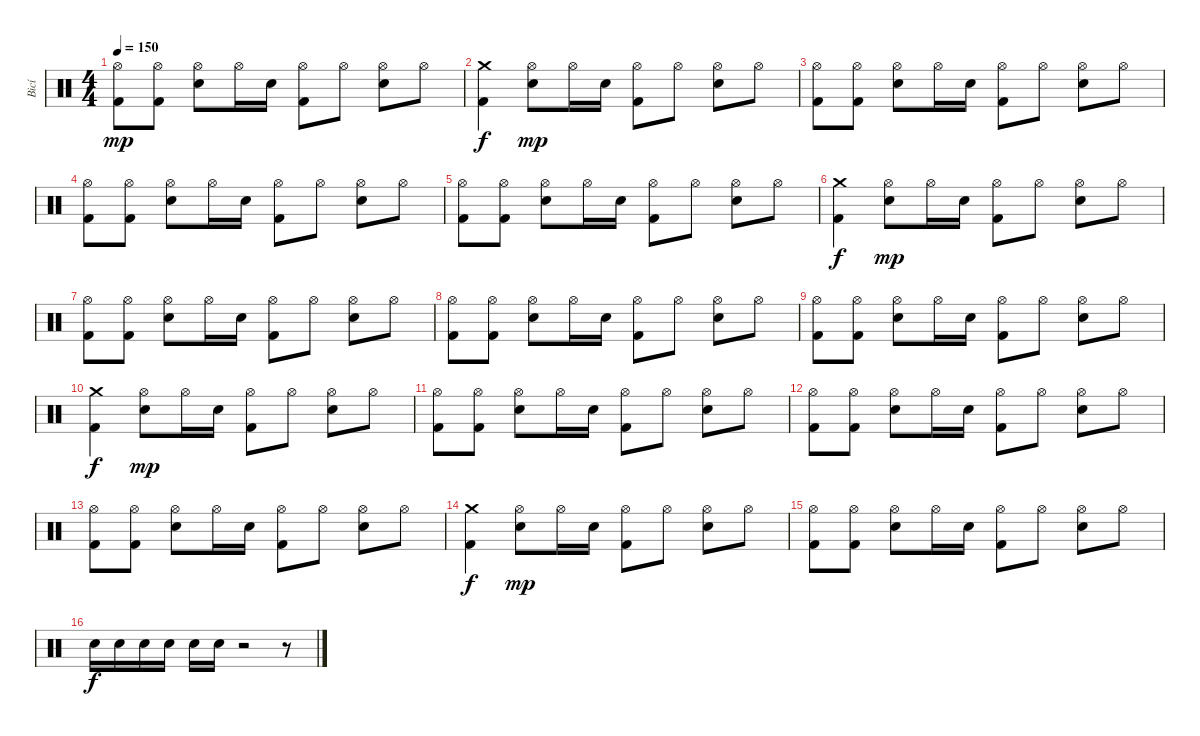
\track ("Bicí" "Bicí") {instrument percussion}
\staff {score}
\articulation defaults
\ts (4 4)
\tempo 150
\clef neutral
\ks c
("Hi-Hat (open)" "Kick (hit) 2").8{dy mp} ("Hi-Hat (open)" "Kick (hit) 2").8 ("Hi-Hat (open)" "Electric Snare (hit)").8 "Hi-Hat (open)".16 "Electric Snare (hit)".16 ("Hi-Hat (open)" "Kick (hit) 2").8 "Hi-Hat (open)".8 ("Hi-Hat (open)" "Electric Snare (hit)").8 "Hi-Hat (open)".8 |
("Crash medium (hit)" "Kick (hit) 2").4{dy f} ("Hi-Hat (open)" "Electric Snare (hit)").8{dy mp} "Hi-Hat (open)".16 "Electric Snare (hit)".16 ("Hi-Hat (open)" "Kick (hit) 2").8 "Hi-Hat (open)".8 ("Hi-Hat (open)" "Electric Snare (hit)").8 "Hi-Hat (open)".8 |
("Hi-Hat (open)" "Kick (hit) 2").8 ("Hi-Hat (open)" "Kick (hit) 2").8 ("Hi-Hat (open)" "Electric Snare (hit)").8 "Hi-Hat (open)".16 "Electric Snare (hit)".16 ("Hi-Hat (open)" "Kick (hit) 2").8 "Hi-Hat (open)".8 ("Hi-Hat (open)" "Electric Snare (hit)").8 "Hi-Hat (open)".8 |
("Hi-Hat (open)" "Kick (hit) 2").8 ("Hi-Hat (open)" "Kick (hit) 2").8 ("Hi-Hat (open)" "Electric Snare (hit)").8 "Hi-Hat (open)".16 "Electric Snare (hit)".16 ("Hi-Hat (open)" "Kick (hit) 2").8 "Hi-Hat (open)".8 ("Hi-Hat (open)" "Electric Snare (hit)").8 "Hi-Hat (open)".8 |
("Hi-Hat (open)" "Kick (hit) 2").8 ("Hi-Hat (open)" "Kick (hit) 2").8 ("Hi-Hat (open)" "Electric Snare (hit)").8 "Hi-Hat (open)".16 "Electric Snare (hit)".16 ("Hi-Hat (open)" "Kick (hit) 2").8 "Hi-Hat (open)".8 ("Hi-Hat (open)" "Electric Snare (hit)").8 "Hi-Hat (open)".8 |
("Crash medium (hit)" "Kick (hit) 2").4{dy f} ("Hi-Hat (open)" "Electric Snare (hit)").8{dy mp} "Hi-Hat (open)".16 "Electric Snare (hit)".16 ("Hi-Hat (open)" "Kick (hit) 2").8 "Hi-Hat (open)".8 ("Hi-Hat (open)" "Electric Snare (hit)").8 "Hi-Hat (open)".8 |
("Hi-Hat (open)" "Kick (hit) 2").8 ("Hi-Hat (open)" "Kick (hit) 2").8 ("Hi-Hat (open)" "Electric Snare (hit)").8 "Hi-Hat (open)".16 "Electric Snare (hit)".16 ("Hi-Hat (open)" "Kick (hit) 2").8 "Hi-Hat (open)".8 ("Hi-Hat (open)" "Electric Snare (hit)").8 "Hi-Hat (open)".8 |
("Hi-Hat (open)" "Kick (hit) 2").8 ("Hi-Hat (open)" "Kick (hit) 2").8 ("Hi-Hat (open)" "Electric Snare (hit)").8 "Hi-Hat (open)".16 "Electric Snare (hit)".16 ("Hi-Hat (open)" "Kick (hit) 2").8 "Hi-Hat (open)".8 ("Hi-Hat (open)" "Electric Snare (hit)").8 "Hi-Hat (open)".8 |
("Hi-Hat (open)" "Kick (hit) 2").8 ("Hi-Hat (open)" "Kick (hit) 2").8 ("Hi-Hat (open)" "Electric Snare (hit)").8 "Hi-Hat (open)".16 "Electric Snare (hit)".16 ("Hi-Hat (open)" "Kick (hit) 2").8 "Hi-Hat (open)".8 ("Hi-Hat (open)" "Electric Snare (hit)").8 "Hi-Hat (open)".8 |
("Crash medium (hit)" "Kick (hit) 2").4{dy f} ("Hi-Hat (open)" "Electric Snare (hit)").8{dy mp} "Hi-Hat (open)".16 "Electric Snare (hit)".16 ("Hi-Hat (open)" "Kick (hit) 2").8 "Hi-Hat (open)".8 ("Hi-Hat (open)" "Electric Snare (hit)").8 "Hi-Hat (open)".8 |
("Hi-Hat (open)" "Kick (hit) 2").8 ("Hi-Hat (open)" "Kick (hit) 2").8 ("Hi-Hat (open)" "Electric Snare (hit)").8 "Hi-Hat (open)".16 "Electric Snare (hit)".16 ("Hi-Hat (open)" "Kick (hit) 2").8 "Hi-Hat (open)".8 ("Hi-Hat (open)" "Electric Snare (hit)").8 "Hi-Hat (open)".8 |
("Hi-Hat (open)" "Kick (hit) 2").8 ("Hi-Hat (open)" "Kick (hit) 2").8 ("Hi-Hat (open)" "Electric Snare (hit)").8 "Hi-Hat (open)".16 "Electric Snare (hit)".16 ("Hi-Hat (open)" "Kick (hit) 2").8 "Hi-Hat (open)".8 ("Hi-Hat (open)" "Electric Snare (hit)").8 "Hi-Hat (open)".8 |
("Hi-Hat (open)" "Kick (hit) 2").8 ("Hi-Hat (open)" "Kick (hit) 2").8 ("Hi-Hat (open)" "Electric Snare (hit)").8 "Hi-Hat (open)".16 "Electric Snare (hit)".16 ("Hi-Hat (open)" "Kick (hit) 2").8 "Hi-Hat (open)".8 ("Hi-Hat (open)" "Electric Snare (hit)").8 "Hi-Hat (open)".8 |
("Crash medium (hit)" "Kick (hit) 2").4{dy f} ("Hi-Hat (open)" "Electric Snare (hit)").8{dy mp} "Hi-Hat (open)".16 "Electric Snare (hit)".16 ("Hi-Hat (open)" "Kick (hit) 2").8 "Hi-Hat (open)".8 ("Hi-Hat (open)" "Electric Snare (hit)").8 "Hi-Hat (open)".8 |
("Hi-Hat (open)" "Kick (hit) 2").8 ("Hi-Hat (open)" "Kick (hit) 2").8 ("Hi-Hat (open)" "Electric Snare (hit)").8 "Hi-Hat (open)".16 "Electric Snare (hit)".16 ("Hi-Hat (open)" "Kick (hit) 2").8 "Hi-Hat (open)".8 ("Hi-Hat (open)" "Electric Snare (hit)").8 "Hi-Hat (open)".8 |
"Snare (hit) 2".16{dy f} "Snare (hit) 2".16 "Snare (hit) 2".16 "Snare (hit) 2".16 "Snare (hit) 2".16 "Snare (hit) 2".16 r.2 r.8
